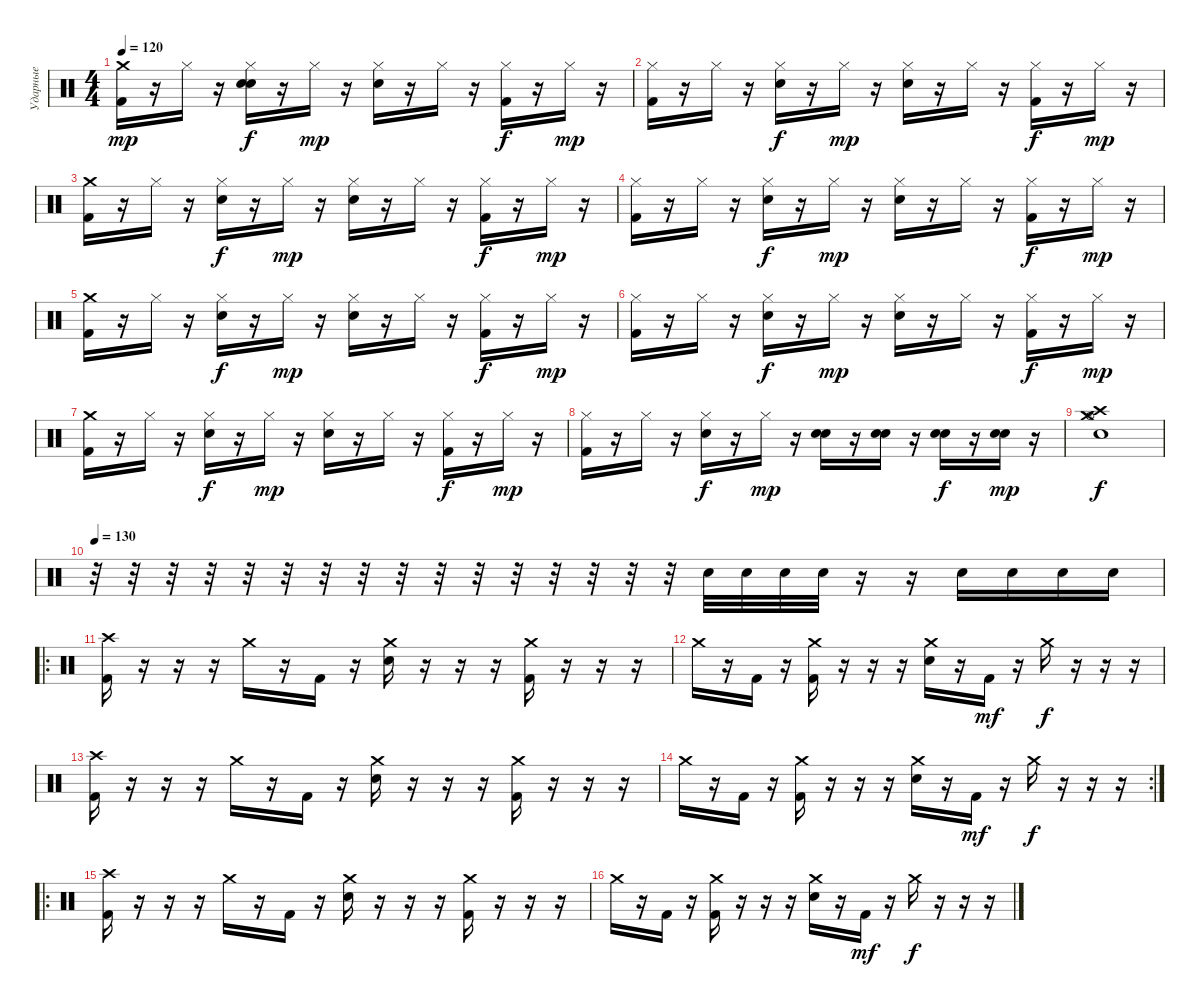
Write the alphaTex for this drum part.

\track ("Ударные" "Ударные") {instrument percussion}
\staff {score}
\articulation defaults
\ts (4 4)
\tempo 120
\clef neutral
\ks c
("Crash medium (hit)" "Kick (hit) 2").16{dy mp} r.16 "Hi-Hat (closed)".16 r.16 ("Hi-Hat (closed)" "Electric Snare (hit)" "Electric Snare (hit)").16{dy f} r.16 "Hi-Hat (closed)".16{dy mp} r.16 ("Hi-Hat (closed)" "Electric Snare (hit)").16 r.16 "Hi-Hat (closed)".16 r.16 ("Hi-Hat (closed)" "Kick (hit) 2").16{dy f} r.16 "Hi-Hat (closed)".16{dy mp} r.16 |
("Hi-Hat (closed)" "Kick (hit) 2").16 r.16 "Hi-Hat (closed)".16 r.16 ("Hi-Hat (closed)" "Electric Snare (hit)").16{dy f} r.16 "Hi-Hat (closed)".16{dy mp} r.16 ("Hi-Hat (closed)" "Electric Snare (hit)").16 r.16 "Hi-Hat (closed)".16 r.16 ("Hi-Hat (closed)" "Kick (hit) 2").16{dy f} r.16 "Hi-Hat (closed)".16{dy mp} r.16 |
("Crash medium (hit)" "Kick (hit) 2").16 r.16 "Hi-Hat (closed)".16 r.16 ("Hi-Hat (closed)" "Electric Snare (hit)").16{dy f} r.16 "Hi-Hat (closed)".16{dy mp} r.16 ("Hi-Hat (closed)" "Electric Snare (hit)").16 r.16 "Hi-Hat (closed)".16 r.16 ("Hi-Hat (closed)" "Kick (hit) 2").16{dy f} r.16 "Hi-Hat (closed)".16{dy mp} r.16 |
("Hi-Hat (closed)" "Kick (hit) 2").16 r.16 "Hi-Hat (closed)".16 r.16 ("Hi-Hat (closed)" "Electric Snare (hit)").16{dy f} r.16 "Hi-Hat (closed)".16{dy mp} r.16 ("Hi-Hat (closed)" "Electric Snare (hit)").16 r.16 "Hi-Hat (closed)".16 r.16 ("Hi-Hat (closed)" "Kick (hit) 2").16{dy f} r.16 "Hi-Hat (closed)".16{dy mp} r.16 |
("Crash medium (hit)" "Kick (hit) 2").16 r.16 "Hi-Hat (closed)".16 r.16 ("Hi-Hat (closed)" "Electric Snare (hit)").16{dy f} r.16 "Hi-Hat (closed)".16{dy mp} r.16 ("Hi-Hat (closed)" "Electric Snare (hit)").16 r.16 "Hi-Hat (closed)".16 r.16 ("Hi-Hat (closed)" "Kick (hit) 2").16{dy f} r.16 "Hi-Hat (closed)".16{dy mp} r.16 |
("Hi-Hat (closed)" "Kick (hit) 2").16 r.16 "Hi-Hat (closed)".16 r.16 ("Hi-Hat (closed)" "Electric Snare (hit)").16{dy f} r.16 "Hi-Hat (closed)".16{dy mp} r.16 ("Hi-Hat (closed)" "Electric Snare (hit)").16 r.16 "Hi-Hat (closed)".16 r.16 ("Hi-Hat (closed)" "Kick (hit) 2").16{dy f} r.16 "Hi-Hat (closed)".16{dy mp} r.16 |
("Crash medium (hit)" "Kick (hit) 2").16 r.16 "Hi-Hat (closed)".16 r.16 ("Hi-Hat (closed)" "Electric Snare (hit)").16{dy f} r.16 "Hi-Hat (closed)".16{dy mp} r.16 ("Hi-Hat (closed)" "Electric Snare (hit)").16 r.16 "Hi-Hat (closed)".16 r.16 ("Hi-Hat (closed)" "Kick (hit) 2").16{dy f} r.16 "Hi-Hat (closed)".16{dy mp} r.16 |
("Hi-Hat (closed)" "Kick (hit) 2").16 r.16 "Hi-Hat (closed)".16 r.16 ("Hi-Hat (closed)" "Electric Snare (hit)").16{dy f} r.16 "Hi-Hat (closed)".16{dy mp} r.16 ("Snare (hit) 2" "Electric Snare (hit)").16 r.16 ("Snare (hit) 2" "Electric Snare (hit)").16 r.16 ("Snare (hit) 2" "Electric Snare (hit)").16{dy f} r.16 ("Snare (hit) 2" "Electric Snare (hit)").16{dy mp} r.16 |
("Hi-Hat (open)" "Snare (hit) 2" "Crash medium (hit)" "Crash high (hit)").1{dy f} |
\tempo 130
r.32 r.32 r.32 r.32 r.32 r.32 r.32 r.32 r.32 r.32 r.32 r.32 r.32 r.32 r.32 r.32 "Electric Snare (hit)".32 "Electric Snare (hit)".32 "Electric Snare (hit)".32 "Electric Snare (hit)".32 r.16 r.16 "Electric Snare (hit)".16 "Electric Snare (hit)".16 "Electric Snare (hit)".16 "Electric Snare (hit)".16 |
\ro
("Crash high (hit)" "Kick (hit) 2").16 r.16 r.16 r.16 "Crash medium (hit)".16 r.16 "Kick (hit) 2".16 r.16 ("Crash medium (hit)" "Electric Snare (hit)").16 r.16 r.16 r.16 ("Crash medium (hit)" "Kick (hit) 2").16 r.16 r.16 r.16 |
"Crash medium (hit)".16 r.16 "Kick (hit) 2".16 r.16 ("Crash medium (hit)" "Kick (hit) 2").16 r.16 r.16 r.16 ("Crash medium (hit)" "Electric Snare (hit)").16 r.16 "Kick (hit) 2".16{dy mf} r.16 "Crash medium (hit)".16{dy f} r.16 r.16 r.16 |
("Crash high (hit)" "Kick (hit) 2").16 r.16 r.16 r.16 "Crash medium (hit)".16 r.16 "Kick (hit) 2".16 r.16 ("Crash medium (hit)" "Electric Snare (hit)").16 r.16 r.16 r.16 ("Crash medium (hit)" "Kick (hit) 2").16 r.16 r.16 r.16 |
\rc 2 "Crash medium (hit)".16
r.16 "Kick (hit) 2".16 r.16 ("Crash medium (hit)" "Kick (hit) 2").16 r.16 r.16 r.16 ("Crash medium (hit)" "Electric Snare (hit)").16 r.16 "Kick (hit) 2".16{dy mf} r.16 "Crash medium (hit)".16{dy f} r.16 r.16 r.16 |
\ro
("Crash high (hit)" "Kick (hit) 2").16 r.16 r.16 r.16 "Crash medium (hit)".16 r.16 "Kick (hit) 2".16 r.16 ("Crash medium (hit)" "Electric Snare (hit)").16 r.16 r.16 r.16 ("Crash medium (hit)" "Kick (hit) 2").16 r.16 r.16 r.16 |
"Crash medium (hit)".16 r.16 "Kick (hit) 2".16 r.16 ("Crash medium (hit)" "Kick (hit) 2").16 r.16 r.16 r.16 ("Crash medium (hit)" "Electric Snare (hit)").16 r.16 "Kick (hit) 2".16{dy mf} r.16 "Crash medium (hit)".16{dy f} r.16 r.16 r.16
